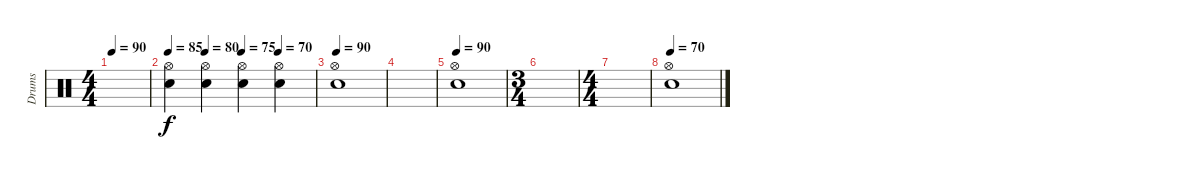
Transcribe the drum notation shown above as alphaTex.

\track ("Drums" "Drums") {instrument percussion}
\staff {score}
\articulation defaults
\ts (4 4)
\tempo 90
\clef neutral
\ks c
|
\tempo 85
\tempo (80 0.25)
\tempo (75 0.5)
\tempo (70 0.75)
("Hi-Hat (open)" "Snare (hit) 2").4 ("Hi-Hat (open)" "Snare (hit) 2").4 ("Hi-Hat (open)" "Snare (hit) 2").4 ("Hi-Hat (open)" "Snare (hit) 2").4 |
\tempo 90
("Hi-Hat (open)" "Snare (hit) 2").1 |
|
\tempo 90
("Hi-Hat (open)" "Snare (hit) 2").1 |
\ts (3 4)
|
\ts (4 4)
|
\tempo 70
("Hi-Hat (open)" "Snare (hit) 2").1
